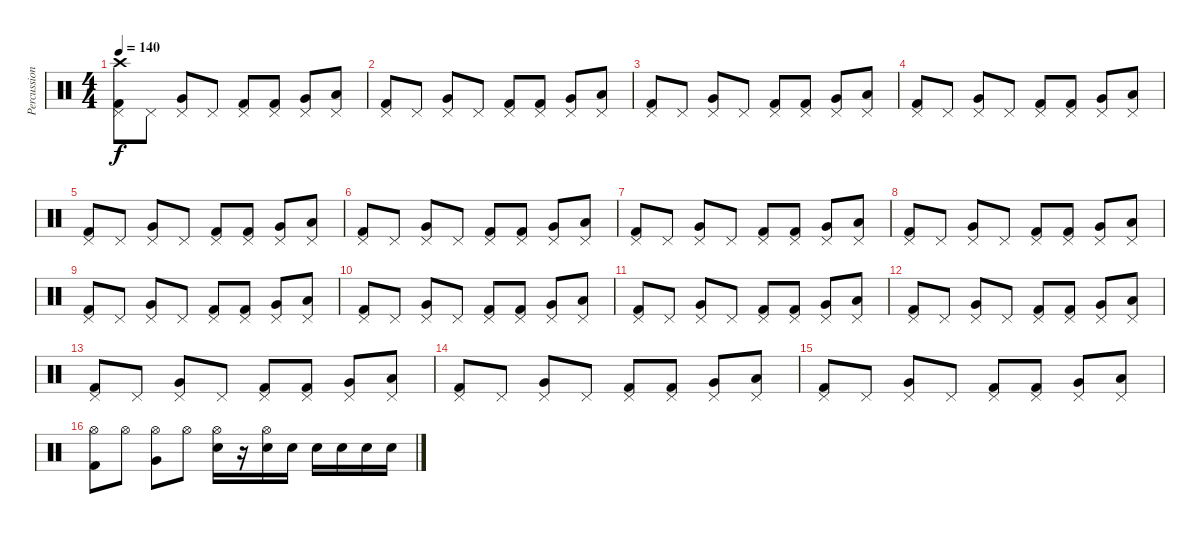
\track ("Percussion" "Percussion") {instrument percussion}
\staff {score}
\articulation defaults
\ts (4 4)
\tempo 140
\clef neutral
\ks c
("Kick (hit) 2" "Pedal Hi-Hat (hit)" "Crash high (hit)").8{dy f} "Pedal Hi-Hat (hit)".8 ("Very Low Tom (hit)" "Pedal Hi-Hat (hit)").8 "Pedal Hi-Hat (hit)".8 ("Kick (hit) 2" "Pedal Hi-Hat (hit)").8 ("Kick (hit) 2" "Pedal Hi-Hat (hit)").8 ("Very Low Tom (hit)" "Pedal Hi-Hat (hit)").8 ("Low Floor Tom (hit)" "Pedal Hi-Hat (hit)").8 |
("Kick (hit) 2" "Pedal Hi-Hat (hit)").8 "Pedal Hi-Hat (hit)".8 ("Very Low Tom (hit)" "Pedal Hi-Hat (hit)").8 "Pedal Hi-Hat (hit)".8 ("Kick (hit) 2" "Pedal Hi-Hat (hit)").8 ("Kick (hit) 2" "Pedal Hi-Hat (hit)").8 ("Very Low Tom (hit)" "Pedal Hi-Hat (hit)").8 ("Low Floor Tom (hit)" "Pedal Hi-Hat (hit)").8 |
("Kick (hit) 2" "Pedal Hi-Hat (hit)").8 "Pedal Hi-Hat (hit)".8 ("Very Low Tom (hit)" "Pedal Hi-Hat (hit)").8 "Pedal Hi-Hat (hit)".8 ("Kick (hit) 2" "Pedal Hi-Hat (hit)").8 ("Kick (hit) 2" "Pedal Hi-Hat (hit)").8 ("Very Low Tom (hit)" "Pedal Hi-Hat (hit)").8 ("Low Floor Tom (hit)" "Pedal Hi-Hat (hit)").8 |
("Kick (hit) 2" "Pedal Hi-Hat (hit)").8 "Pedal Hi-Hat (hit)".8 ("Very Low Tom (hit)" "Pedal Hi-Hat (hit)").8 "Pedal Hi-Hat (hit)".8 ("Kick (hit) 2" "Pedal Hi-Hat (hit)").8 ("Kick (hit) 2" "Pedal Hi-Hat (hit)").8 ("Very Low Tom (hit)" "Pedal Hi-Hat (hit)").8 ("Low Floor Tom (hit)" "Pedal Hi-Hat (hit)").8 |
("Kick (hit) 2" "Pedal Hi-Hat (hit)").8 "Pedal Hi-Hat (hit)".8 ("Very Low Tom (hit)" "Pedal Hi-Hat (hit)").8 "Pedal Hi-Hat (hit)".8 ("Kick (hit) 2" "Pedal Hi-Hat (hit)").8 ("Kick (hit) 2" "Pedal Hi-Hat (hit)").8 ("Very Low Tom (hit)" "Pedal Hi-Hat (hit)").8 ("Low Floor Tom (hit)" "Pedal Hi-Hat (hit)").8 |
("Kick (hit) 2" "Pedal Hi-Hat (hit)").8 "Pedal Hi-Hat (hit)".8 ("Very Low Tom (hit)" "Pedal Hi-Hat (hit)").8 "Pedal Hi-Hat (hit)".8 ("Kick (hit) 2" "Pedal Hi-Hat (hit)").8 ("Kick (hit) 2" "Pedal Hi-Hat (hit)").8 ("Very Low Tom (hit)" "Pedal Hi-Hat (hit)").8 ("Low Floor Tom (hit)" "Pedal Hi-Hat (hit)").8 |
("Kick (hit) 2" "Pedal Hi-Hat (hit)").8 "Pedal Hi-Hat (hit)".8 ("Very Low Tom (hit)" "Pedal Hi-Hat (hit)").8 "Pedal Hi-Hat (hit)".8 ("Kick (hit) 2" "Pedal Hi-Hat (hit)").8 ("Kick (hit) 2" "Pedal Hi-Hat (hit)").8 ("Very Low Tom (hit)" "Pedal Hi-Hat (hit)").8 ("Low Floor Tom (hit)" "Pedal Hi-Hat (hit)").8 |
("Kick (hit) 2" "Pedal Hi-Hat (hit)").8 "Pedal Hi-Hat (hit)".8 ("Very Low Tom (hit)" "Pedal Hi-Hat (hit)").8 "Pedal Hi-Hat (hit)".8 ("Kick (hit) 2" "Pedal Hi-Hat (hit)").8 ("Kick (hit) 2" "Pedal Hi-Hat (hit)").8 ("Very Low Tom (hit)" "Pedal Hi-Hat (hit)").8 ("Low Floor Tom (hit)" "Pedal Hi-Hat (hit)").8 |
("Kick (hit) 2" "Pedal Hi-Hat (hit)").8 "Pedal Hi-Hat (hit)".8 ("Very Low Tom (hit)" "Pedal Hi-Hat (hit)").8 "Pedal Hi-Hat (hit)".8 ("Kick (hit) 2" "Pedal Hi-Hat (hit)").8 ("Kick (hit) 2" "Pedal Hi-Hat (hit)").8 ("Very Low Tom (hit)" "Pedal Hi-Hat (hit)").8 ("Low Floor Tom (hit)" "Pedal Hi-Hat (hit)").8 |
("Kick (hit) 2" "Pedal Hi-Hat (hit)").8 "Pedal Hi-Hat (hit)".8 ("Very Low Tom (hit)" "Pedal Hi-Hat (hit)").8 "Pedal Hi-Hat (hit)".8 ("Kick (hit) 2" "Pedal Hi-Hat (hit)").8 ("Kick (hit) 2" "Pedal Hi-Hat (hit)").8 ("Very Low Tom (hit)" "Pedal Hi-Hat (hit)").8 ("Low Floor Tom (hit)" "Pedal Hi-Hat (hit)").8 |
("Kick (hit) 2" "Pedal Hi-Hat (hit)").8 "Pedal Hi-Hat (hit)".8 ("Very Low Tom (hit)" "Pedal Hi-Hat (hit)").8 "Pedal Hi-Hat (hit)".8 ("Kick (hit) 2" "Pedal Hi-Hat (hit)").8 ("Kick (hit) 2" "Pedal Hi-Hat (hit)").8 ("Very Low Tom (hit)" "Pedal Hi-Hat (hit)").8 ("Low Floor Tom (hit)" "Pedal Hi-Hat (hit)").8 |
("Kick (hit) 2" "Pedal Hi-Hat (hit)").8 "Pedal Hi-Hat (hit)".8 ("Very Low Tom (hit)" "Pedal Hi-Hat (hit)").8 "Pedal Hi-Hat (hit)".8 ("Kick (hit) 2" "Pedal Hi-Hat (hit)").8 ("Kick (hit) 2" "Pedal Hi-Hat (hit)").8 ("Very Low Tom (hit)" "Pedal Hi-Hat (hit)").8 ("Low Floor Tom (hit)" "Pedal Hi-Hat (hit)").8 |
("Kick (hit) 2" "Pedal Hi-Hat (hit)").8 "Pedal Hi-Hat (hit)".8 ("Very Low Tom (hit)" "Pedal Hi-Hat (hit)").8 "Pedal Hi-Hat (hit)".8 ("Kick (hit) 2" "Pedal Hi-Hat (hit)").8 ("Kick (hit) 2" "Pedal Hi-Hat (hit)").8 ("Very Low Tom (hit)" "Pedal Hi-Hat (hit)").8 ("Low Floor Tom (hit)" "Pedal Hi-Hat (hit)").8 |
("Kick (hit) 2" "Pedal Hi-Hat (hit)").8 "Pedal Hi-Hat (hit)".8 ("Very Low Tom (hit)" "Pedal Hi-Hat (hit)").8 "Pedal Hi-Hat (hit)".8 ("Kick (hit) 2" "Pedal Hi-Hat (hit)").8 ("Kick (hit) 2" "Pedal Hi-Hat (hit)").8 ("Very Low Tom (hit)" "Pedal Hi-Hat (hit)").8 ("Low Floor Tom (hit)" "Pedal Hi-Hat (hit)").8 |
("Kick (hit) 2" "Pedal Hi-Hat (hit)").8 "Pedal Hi-Hat (hit)".8 ("Very Low Tom (hit)" "Pedal Hi-Hat (hit)").8 "Pedal Hi-Hat (hit)".8 ("Kick (hit) 2" "Pedal Hi-Hat (hit)").8 ("Kick (hit) 2" "Pedal Hi-Hat (hit)").8 ("Very Low Tom (hit)" "Pedal Hi-Hat (hit)").8 ("Low Floor Tom (hit)" "Pedal Hi-Hat (hit)").8 |
("Kick (hit) 2" "Hi-Hat (open)").8 "Hi-Hat (open)".8 ("Very Low Tom (hit)" "Hi-Hat (open)").8 "Hi-Hat (open)".8 ("Snare (hit) 2" "Hi-Hat (open)").16 r.16 ("Snare (hit) 2" "Hi-Hat (open)").16 "Snare (hit) 2".16 "Snare (hit) 2".16 "Snare (hit) 2".16 "Snare (hit) 2".16 "Snare (hit) 2".16
